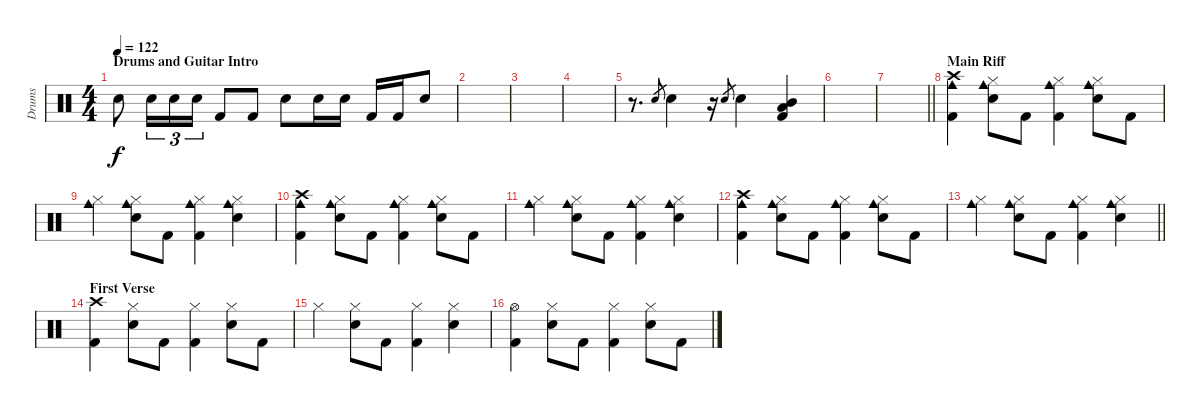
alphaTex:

\track ("Drums" "Drums") {instrument percussion}
\staff {score}
\articulation defaults
\ts (4 4)
\section ("" "Drums and Guitar Intro")
\tempo 122
\clef neutral
\ks c "Snare (hit) 2".8{dy f volume 6} "Snare (hit) 2".16{tu (3 2)} "Snare (hit) 2".16{tu (3 2)} "Snare (hit) 2".16{tu (3 2)} "Kick (hit) 2".8 "Kick (hit) 2".8 "Snare (hit) 2".8 "Snare (hit) 2".16 "Snare (hit) 2".16 "Kick (hit) 2".16 "Kick (hit) 2".16 "Snare (hit) 2".8
|
|
|
|
r.8{d} "Snare (hit) 2".8{gr} "Snare (hit) 2".4 r.16 "Snare (hit) 2".8{gr} "Snare (hit) 2".4 ("Low Tom (hit)" "Mid Tom (hit)" "Kick (hit) 2").4 |
|
\barLineRight lightlight
|
\section ("" "Main Riff")
("Crash high (hit)" "Kick (hit) 2" "Cowbell medium (hit)").4 ("Hi-Hat (closed)" "Snare (hit) 2" "Cowbell medium (hit)").8 "Kick (hit) 2".8 ("Hi-Hat (closed)" "Kick (hit) 2" "Cowbell medium (hit)").4 ("Hi-Hat (closed)" "Snare (hit) 2" "Cowbell medium (hit)").8 "Kick (hit) 2".8 |
("Hi-Hat (closed)" "Cowbell medium (hit)").4 ("Hi-Hat (closed)" "Snare (hit) 2" "Cowbell medium (hit)").8 "Kick (hit) 2".8 ("Hi-Hat (closed)" "Kick (hit) 2" "Cowbell medium (hit)").4 ("Hi-Hat (closed)" "Snare (hit) 2" "Cowbell medium (hit)").4 |
("Crash high (hit)" "Kick (hit) 2" "Cowbell medium (hit)").4 ("Hi-Hat (closed)" "Snare (hit) 2" "Cowbell medium (hit)").8 "Kick (hit) 2".8 ("Hi-Hat (closed)" "Kick (hit) 2" "Cowbell medium (hit)").4 ("Hi-Hat (closed)" "Snare (hit) 2" "Cowbell medium (hit)").8 "Kick (hit) 2".8 |
("Hi-Hat (closed)" "Cowbell medium (hit)").4 ("Hi-Hat (closed)" "Snare (hit) 2" "Cowbell medium (hit)").8 "Kick (hit) 2".8 ("Hi-Hat (closed)" "Kick (hit) 2" "Cowbell medium (hit)").4 ("Hi-Hat (closed)" "Snare (hit) 2" "Cowbell medium (hit)").4 |
("Crash high (hit)" "Kick (hit) 2" "Cowbell medium (hit)").4 ("Hi-Hat (closed)" "Snare (hit) 2" "Cowbell medium (hit)").8 "Kick (hit) 2".8 ("Hi-Hat (closed)" "Kick (hit) 2" "Cowbell medium (hit)").4 ("Hi-Hat (closed)" "Snare (hit) 2" "Cowbell medium (hit)").8 "Kick (hit) 2".8 |
\barLineRight lightlight
("Hi-Hat (closed)" "Cowbell medium (hit)").4 ("Hi-Hat (closed)" "Snare (hit) 2" "Cowbell medium (hit)").8 "Kick (hit) 2".8 ("Hi-Hat (closed)" "Kick (hit) 2" "Cowbell medium (hit)").4 ("Hi-Hat (closed)" "Snare (hit) 2" "Cowbell medium (hit)").4 |
\section ("" "First Verse")
("Crash high (hit)" "Kick (hit) 2").4 ("Hi-Hat (closed)" "Snare (hit) 2").8 "Kick (hit) 2".8 ("Hi-Hat (closed)" "Kick (hit) 2").4 ("Hi-Hat (closed)" "Snare (hit) 2").8 "Kick (hit) 2".8 |
"Hi-Hat (closed)".4 ("Hi-Hat (closed)" "Snare (hit) 2").8 "Kick (hit) 2".8 ("Hi-Hat (closed)" "Kick (hit) 2").4 ("Hi-Hat (closed)" "Snare (hit) 2").4 |
("Hi-Hat (open)" "Kick (hit) 2").4 ("Hi-Hat (closed)" "Snare (hit) 2").8 "Kick (hit) 2".8 ("Hi-Hat (closed)" "Kick (hit) 2").4 ("Hi-Hat (closed)" "Snare (hit) 2").8 "Kick (hit) 2".8
